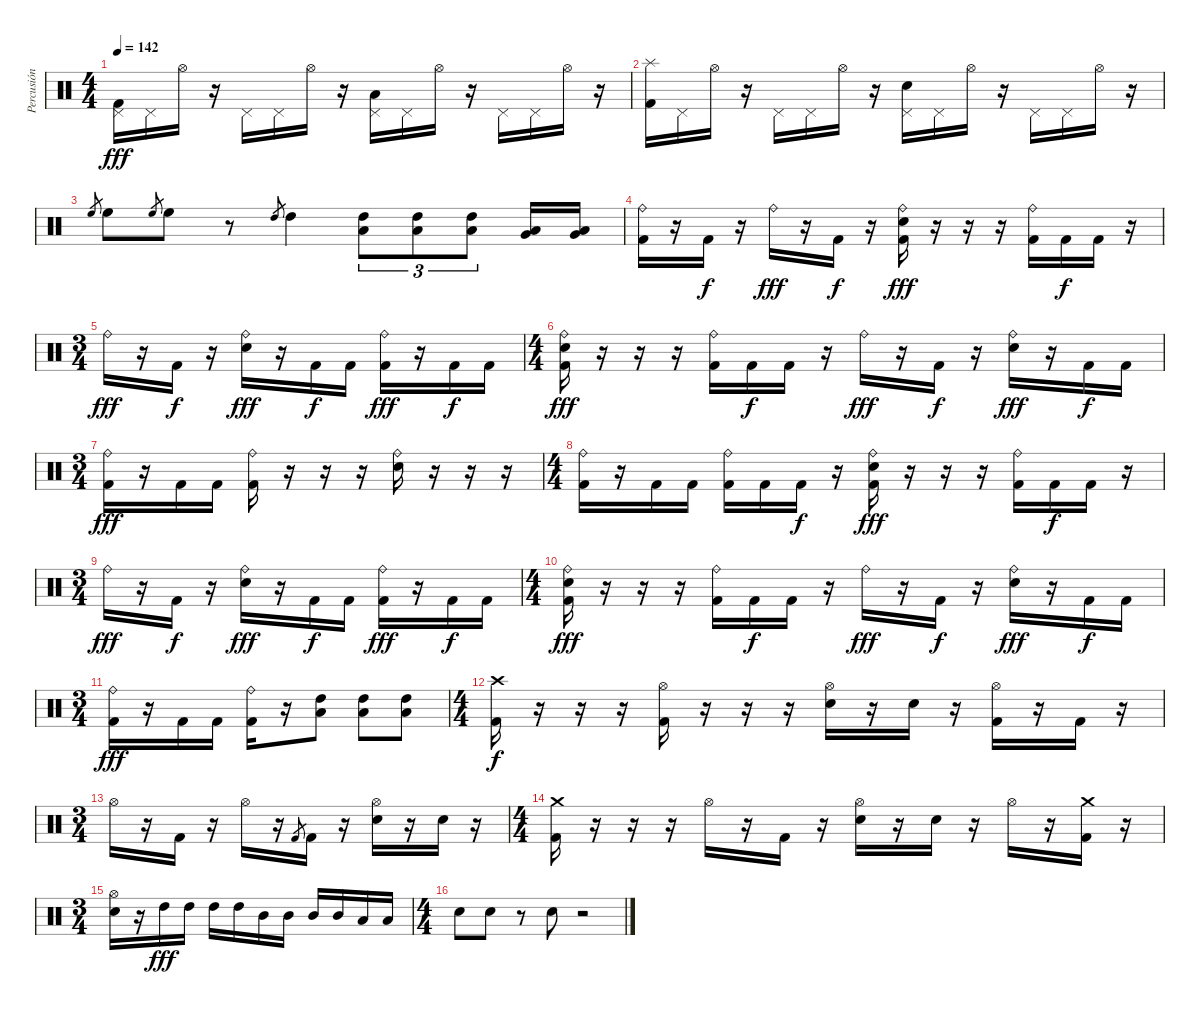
\track ("Percusión" "Percusión") {instrument percussion}
\staff {score}
\articulation defaults
\ts (4 4)
\tempo 142
\clef neutral
\ks c
("Pedal Hi-Hat (hit)" "Kick (hit) 2").16{dy fff} "Pedal Hi-Hat (hit)".16 "Hi-Hat (open)".16 r.16 "Pedal Hi-Hat (hit)".16 "Pedal Hi-Hat (hit)".16 "Hi-Hat (open)".16 r.16 ("Pedal Hi-Hat (hit)" "Low Tom (hit)").16 "Pedal Hi-Hat (hit)".16 "Hi-Hat (open)".16 r.16 "Pedal Hi-Hat (hit)".16 "Pedal Hi-Hat (hit)".16 "Hi-Hat (open)".16 r.16 |
("Splash (hit)" "Kick (hit) 2").16 "Pedal Hi-Hat (hit)".16 "Hi-Hat (open)".16 r.16 "Pedal Hi-Hat (hit)".16 "Pedal Hi-Hat (hit)".16 "Hi-Hat (open)".16 r.16 ("Pedal Hi-Hat (hit)" "Electric Snare (hit)").16 "Pedal Hi-Hat (hit)".16 "Hi-Hat (open)".16 r.16 "Pedal Hi-Hat (hit)".16 "Pedal Hi-Hat (hit)".16 "Hi-Hat (open)".16 r.16 |
"High Floor Tom (hit)".8{gr} "High Floor Tom (hit)".8 "High Floor Tom (hit)".8{gr} "High Floor Tom (hit)".8 r.8 "High Tom (hit)".8{gr} "High Tom (hit)".4 ("High Tom (hit)" "Low Tom (hit)").8{tu (3 2)} ("High Tom (hit)" "Low Tom (hit)").8{tu (3 2)} ("High Tom (hit)" "Low Tom (hit)").8{tu (3 2)} ("Low Tom (hit)" "Very Low Tom (hit)").16 ("Low Tom (hit)" "Very Low Tom (hit)").16 |
("Ride (bell)" "Kick (hit) 2").16 r.16 "Kick (hit) 2".16{dy f} r.16 "Ride (bell)".16{dy fff} r.16 "Kick (hit) 2".16{dy f} r.16 ("Ride (bell)" "Electric Snare (hit)" "Kick (hit) 2").16{dy fff} r.16 r.16 r.16 ("Ride (bell)" "Kick (hit) 2").16 "Kick (hit) 2".16{dy f} "Kick (hit) 2".16 r.16 |
\ts (3 4)
"Ride (bell)".16{dy fff} r.16 "Kick (hit) 2".16{dy f} r.16 ("Ride (bell)" "Electric Snare (hit)").16{dy fff} r.16 "Kick (hit) 2".16{dy f} "Kick (hit) 2".16 ("Ride (bell)" "Kick (hit) 2").16{dy fff} r.16 "Kick (hit) 2".16{dy f} "Kick (hit) 2".16 |
\ts (4 4)
("Ride (bell)" "Electric Snare (hit)" "Kick (hit) 2").16{dy fff} r.16 r.16 r.16 ("Ride (bell)" "Kick (hit) 2").16 "Kick (hit) 2".16{dy f} "Kick (hit) 2".16 r.16 "Ride (bell)".16{dy fff} r.16 "Kick (hit) 2".16{dy f} r.16 ("Ride (bell)" "Electric Snare (hit)").16{dy fff} r.16 "Kick (hit) 2".16{dy f} "Kick (hit) 2".16 |
\ts (3 4)
("Ride (bell)" "Kick (hit) 2").16{dy fff} r.16 "Kick (hit) 2".16 "Kick (hit) 2".16 ("Ride (bell)" "Kick (hit) 2").16 r.16 r.16 r.16 ("Ride (bell)" "Electric Snare (hit)").16 r.16 r.16 r.16 |
\ts (4 4)
("Ride (bell)" "Kick (hit) 2").16 r.16 "Kick (hit) 2".16 "Kick (hit) 2".16 ("Ride (bell)" "Kick (hit) 2").16 "Kick (hit) 2".16 "Kick (hit) 2".16{dy f} r.16 ("Ride (bell)" "Electric Snare (hit)" "Kick (hit) 2").16{dy fff} r.16 r.16 r.16 ("Ride (bell)" "Kick (hit) 2").16 "Kick (hit) 2".16{dy f} "Kick (hit) 2".16 r.16 |
\ts (3 4)
"Ride (bell)".16{dy fff} r.16 "Kick (hit) 2".16{dy f} r.16 ("Ride (bell)" "Electric Snare (hit)").16{dy fff} r.16 "Kick (hit) 2".16{dy f} "Kick (hit) 2".16 ("Ride (bell)" "Kick (hit) 2").16{dy fff} r.16 "Kick (hit) 2".16{dy f} "Kick (hit) 2".16 |
\ts (4 4)
("Ride (bell)" "Electric Snare (hit)" "Kick (hit) 2").16{dy fff} r.16 r.16 r.16 ("Ride (bell)" "Kick (hit) 2").16 "Kick (hit) 2".16{dy f} "Kick (hit) 2".16 r.16 "Ride (bell)".16{dy fff} r.16 "Kick (hit) 2".16{dy f} r.16 ("Ride (bell)" "Electric Snare (hit)").16{dy fff} r.16 "Kick (hit) 2".16{dy f} "Kick (hit) 2".16 |
\ts (3 4)
("Ride (bell)" "Kick (hit) 2").16{dy fff} r.16 "Kick (hit) 2".16 "Kick (hit) 2".16 ("Ride (bell)" "Kick (hit) 2").16 r.16 ("High Tom (hit)" "Low Tom (hit)").8 ("High Tom (hit)" "Low Tom (hit)").8 ("High Tom (hit)" "Low Tom (hit)").8 |
\ts (4 4)
("Crash high (hit)" "Kick (hit) 2").16{dy f} r.16 r.16 r.16 ("Hi-Hat (open)" "Kick (hit) 2").16 r.16 r.16 r.16 ("Hi-Hat (open)" "Electric Snare (hit)").16 r.16 "Electric Snare (hit)".16 r.16 ("Hi-Hat (open)" "Kick (hit) 2").16 r.16 "Kick (hit) 2".16 r.16 |
\ts (3 4)
"Hi-Hat (open)".16 r.16 "Kick (hit) 2".16 r.16 "Hi-Hat (open)".16 r.16 "Kick (hit) 2".8{gr} "Kick (hit) 2".16 r.16 ("Hi-Hat (open)" "Electric Snare (hit)").16 r.16 "Electric Snare (hit)".16 r.16 |
\ts (4 4)
("Crash medium (hit)" "Kick (hit) 2").16 r.16 r.16 r.16 "Hi-Hat (open)".16 r.16 "Kick (hit) 2".16 r.16 ("Hi-Hat (open)" "Electric Snare (hit)").16 r.16 "Electric Snare (hit)".16 r.16 "Hi-Hat (open)".16 r.16 ("Crash medium (hit)" "Kick (hit) 2").16 r.16 |
\ts (3 4)
("Hi-Hat (open)" "Electric Snare (hit)").16 r.16 "High Tom (hit)".16{dy fff} "High Tom (hit)".16 "High Tom (hit)".16 "High Tom (hit)".16 "Mid Tom (hit)".16 "Mid Tom (hit)".16 "Mid Tom (hit)".16 "Mid Tom (hit)".16 "Low Tom (hit)".16 "Low Tom (hit)".16 |
\ts (4 4)
"Electric Snare (hit)".8 "Electric Snare (hit)".8 r.8 "Electric Snare (hit)".8 r.2
